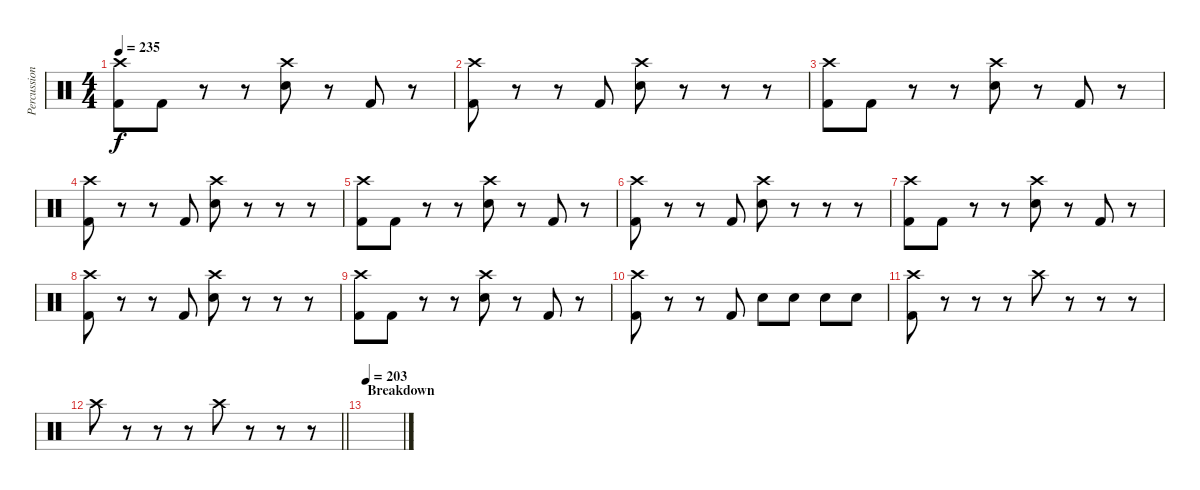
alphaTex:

\track ("Percussion" "Percussion") {instrument percussion}
\staff {score}
\articulation defaults
\ts (4 4)
\tempo 235
\clef neutral
\ks c
("Crash high (hit)" "Kick (hit) 2").8{dy f} "Kick (hit) 2".8 r.8 r.8 ("Crash high (hit)" "Snare (hit) 2").8 r.8 "Kick (hit) 2".8 r.8 |
("Crash high (hit)" "Kick (hit) 2").8 r.8 r.8 "Kick (hit) 2".8 ("Crash high (hit)" "Snare (hit) 2").8 r.8 r.8 r.8 |
("Crash high (hit)" "Kick (hit) 2").8 "Kick (hit) 2".8 r.8 r.8 ("Crash high (hit)" "Snare (hit) 2").8 r.8 "Kick (hit) 2".8 r.8 |
("Crash high (hit)" "Kick (hit) 2").8 r.8 r.8 "Kick (hit) 2".8 ("Crash high (hit)" "Snare (hit) 2").8 r.8 r.8 r.8 |
("Crash high (hit)" "Kick (hit) 2").8 "Kick (hit) 2".8 r.8 r.8 ("Crash high (hit)" "Snare (hit) 2").8 r.8 "Kick (hit) 2".8 r.8 |
("Crash high (hit)" "Kick (hit) 2").8 r.8 r.8 "Kick (hit) 2".8 ("Crash high (hit)" "Snare (hit) 2").8 r.8 r.8 r.8 |
("Crash high (hit)" "Kick (hit) 2").8 "Kick (hit) 2".8 r.8 r.8 ("Crash high (hit)" "Snare (hit) 2").8 r.8 "Kick (hit) 2".8 r.8 |
("Crash high (hit)" "Kick (hit) 2").8 r.8 r.8 "Kick (hit) 2".8 ("Crash high (hit)" "Snare (hit) 2").8 r.8 r.8 r.8 |
("Crash high (hit)" "Kick (hit) 2").8 "Kick (hit) 2".8 r.8 r.8 ("Crash high (hit)" "Snare (hit) 2").8 r.8 "Kick (hit) 2".8 r.8 |
("Crash high (hit)" "Kick (hit) 2").8 r.8 r.8 "Kick (hit) 2".8 "Snare (hit) 2".8 "Snare (hit) 2".8 "Snare (hit) 2".8 "Snare (hit) 2".8 |
("Crash high (hit)" "Kick (hit) 2").8 r.8 r.8 r.8 "Crash high (hit)".8 r.8 r.8 r.8 |
\barLineRight lightlight "Crash high (hit)".8
r.8 r.8 r.8 "Crash high (hit)".8 r.8 r.8 r.8 |
\section ("" "Breakdown")
\tempo 203
